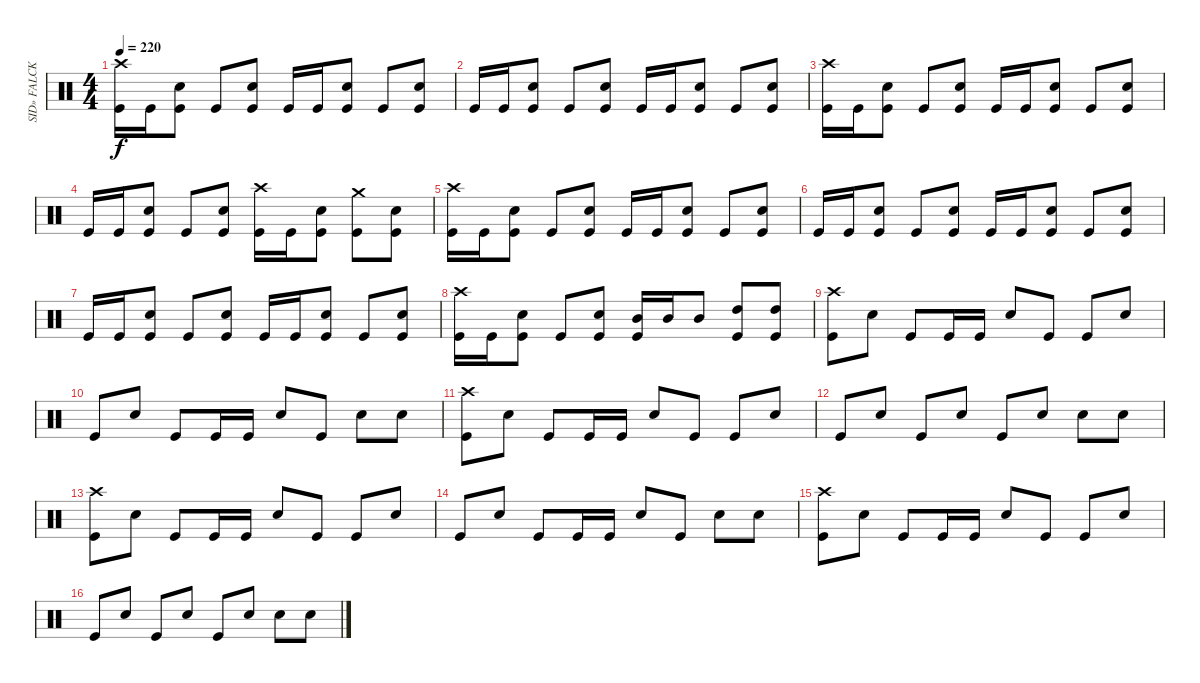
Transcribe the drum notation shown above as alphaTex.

\track ("SID» FALCK- Drums " "SID» FALCK") {instrument percussion}
\staff {score}
\articulation defaults
\ts (4 4)
\tempo 220
\clef neutral
\ks c
("Crash high (hit)" "Kick (hit)").16{dy f} "Kick (hit)".16 ("Electric Snare (hit)" "Kick (hit)").8 "Kick (hit)".8 ("Electric Snare (hit)" "Kick (hit)").8 "Kick (hit)".16 "Kick (hit)".16 ("Electric Snare (hit)" "Kick (hit)").8 "Kick (hit)".8 ("Electric Snare (hit)" "Kick (hit)").8 |
"Kick (hit)".16 "Kick (hit)".16 ("Electric Snare (hit)" "Kick (hit)").8 "Kick (hit)".8 ("Electric Snare (hit)" "Kick (hit)").8 "Kick (hit)".16 "Kick (hit)".16 ("Electric Snare (hit)" "Kick (hit)").8 "Kick (hit)".8 ("Electric Snare (hit)" "Kick (hit)").8 |
("Crash high (hit)" "Kick (hit)").16 "Kick (hit)".16 ("Electric Snare (hit)" "Kick (hit)").8 "Kick (hit)".8 ("Electric Snare (hit)" "Kick (hit)").8 "Kick (hit)".16 "Kick (hit)".16 ("Electric Snare (hit)" "Kick (hit)").8 "Kick (hit)".8 ("Electric Snare (hit)" "Kick (hit)").8 |
"Kick (hit)".16 "Kick (hit)".16 ("Electric Snare (hit)" "Kick (hit)").8 "Kick (hit)".8 ("Electric Snare (hit)" "Kick (hit)").8 ("Crash high (hit)" "Kick (hit)").16 "Kick (hit)".16 ("Electric Snare (hit)" "Kick (hit)").8 ("Crash medium (hit)" "Kick (hit)").8 ("Electric Snare (hit)" "Kick (hit)").8 |
("Crash high (hit)" "Kick (hit)").16 "Kick (hit)".16 ("Electric Snare (hit)" "Kick (hit)").8 "Kick (hit)".8 ("Electric Snare (hit)" "Kick (hit)").8 "Kick (hit)".16 "Kick (hit)".16 ("Electric Snare (hit)" "Kick (hit)").8 "Kick (hit)".8 ("Electric Snare (hit)" "Kick (hit)").8 |
"Kick (hit)".16 "Kick (hit)".16 ("Electric Snare (hit)" "Kick (hit)").8 "Kick (hit)".8 ("Electric Snare (hit)" "Kick (hit)").8 "Kick (hit)".16 "Kick (hit)".16 ("Electric Snare (hit)" "Kick (hit)").8 "Kick (hit)".8 ("Electric Snare (hit)" "Kick (hit)").8 |
"Kick (hit)".16 "Kick (hit)".16 ("Electric Snare (hit)" "Kick (hit)").8 "Kick (hit)".8 ("Electric Snare (hit)" "Kick (hit)").8 "Kick (hit)".16 "Kick (hit)".16 ("Electric Snare (hit)" "Kick (hit)").8 "Kick (hit)".8 ("Electric Snare (hit)" "Kick (hit)").8 |
("Crash high (hit)" "Kick (hit)").16 "Kick (hit)".16 ("Electric Snare (hit)" "Kick (hit)").8 "Kick (hit)".8 ("Electric Snare (hit)" "Kick (hit)").8 ("Mid Tom (hit)" "Kick (hit)").16 "Mid Tom (hit)".16 "Mid Tom (hit)".8 ("High Tom (hit)" "Kick (hit)").8 ("High Tom (hit)" "Kick (hit)").8 |
("Crash high (hit)" "Kick (hit)").8 "Electric Snare (hit)".8 "Kick (hit)".8 "Kick (hit)".16 "Kick (hit)".16 "Electric Snare (hit)".8 "Kick (hit)".8 "Kick (hit)".8 "Electric Snare (hit)".8 |
"Kick (hit)".8 "Electric Snare (hit)".8 "Kick (hit)".8 "Kick (hit)".16 "Kick (hit)".16 "Electric Snare (hit)".8 "Kick (hit)".8 "Electric Snare (hit)".8 "Electric Snare (hit)".8 |
("Crash high (hit)" "Kick (hit)").8 "Electric Snare (hit)".8 "Kick (hit)".8 "Kick (hit)".16 "Kick (hit)".16 "Electric Snare (hit)".8 "Kick (hit)".8 "Kick (hit)".8 "Electric Snare (hit)".8 |
"Kick (hit)".8 "Electric Snare (hit)".8 "Kick (hit)".8 "Electric Snare (hit)".8 "Kick (hit)".8 "Electric Snare (hit)".8 "Electric Snare (hit)".8 "Electric Snare (hit)".8 |
("Crash high (hit)" "Kick (hit)").8 "Electric Snare (hit)".8 "Kick (hit)".8 "Kick (hit)".16 "Kick (hit)".16 "Electric Snare (hit)".8 "Kick (hit)".8 "Kick (hit)".8 "Electric Snare (hit)".8 |
"Kick (hit)".8 "Electric Snare (hit)".8 "Kick (hit)".8 "Kick (hit)".16 "Kick (hit)".16 "Electric Snare (hit)".8 "Kick (hit)".8 "Electric Snare (hit)".8 "Electric Snare (hit)".8 |
("Crash high (hit)" "Kick (hit)").8 "Electric Snare (hit)".8 "Kick (hit)".8 "Kick (hit)".16 "Kick (hit)".16 "Electric Snare (hit)".8 "Kick (hit)".8 "Kick (hit)".8 "Electric Snare (hit)".8 |
"Kick (hit)".8 "Electric Snare (hit)".8 "Kick (hit)".8 "Electric Snare (hit)".8 "Kick (hit)".8 "Electric Snare (hit)".8 "Electric Snare (hit)".8 "Electric Snare (hit)".8
